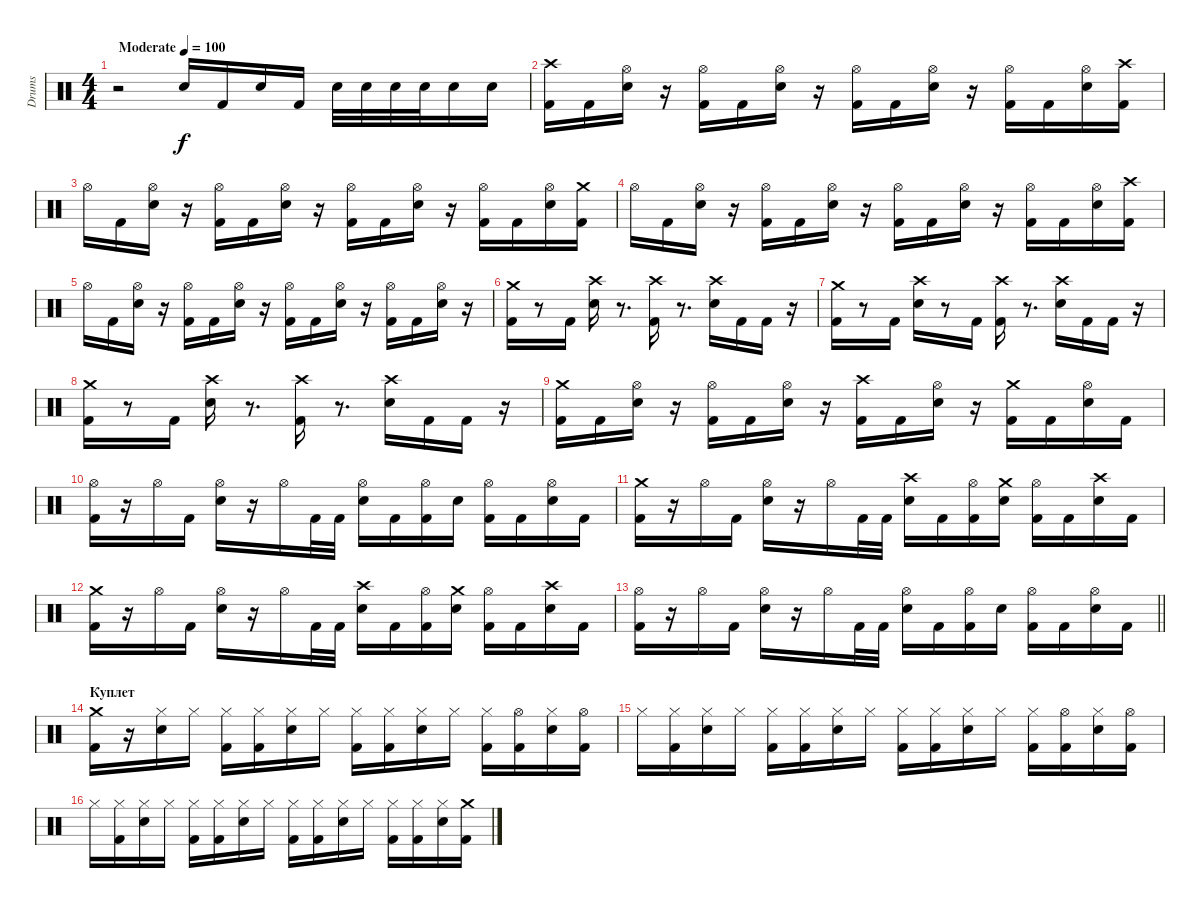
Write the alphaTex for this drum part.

\track ("Drums" "Drums") {instrument percussion}
\staff {score}
\articulation defaults
\ts (4 4)
\tempo (100 "Moderate")
\clef neutral
\ks c
r.2{dy f} "Electric Snare (hit)".16 "Kick (hit) 2".16 "Electric Snare (hit)".16 "Kick (hit) 2".16 "Electric Snare (hit)".32 "Electric Snare (hit)".32 "Electric Snare (hit)".32 "Electric Snare (hit)".32 "Electric Snare (hit)".16 "Electric Snare (hit)".16 |
("Crash high (hit)" "Kick (hit) 2").16 "Kick (hit) 2".16 ("Hi-Hat (open)" "Electric Snare (hit)").16 r.16 ("Hi-Hat (open)" "Kick (hit) 2").16 "Kick (hit) 2".16 ("Hi-Hat (open)" "Electric Snare (hit)").16 r.16 ("Hi-Hat (open)" "Kick (hit) 2").16 "Kick (hit) 2".16 ("Hi-Hat (open)" "Electric Snare (hit)").16 r.16 ("Hi-Hat (open)" "Kick (hit) 2").16 "Kick (hit) 2".16 ("Hi-Hat (open)" "Electric Snare (hit)").16 ("Crash high (hit)" "Kick (hit) 2").16 |
"Hi-Hat (open)".16 "Kick (hit) 2".16 ("Hi-Hat (open)" "Electric Snare (hit)").16 r.16 ("Hi-Hat (open)" "Kick (hit) 2").16 "Kick (hit) 2".16 ("Hi-Hat (open)" "Electric Snare (hit)").16 r.16 ("Hi-Hat (open)" "Kick (hit) 2").16 "Kick (hit) 2".16 ("Hi-Hat (open)" "Electric Snare (hit)").16 r.16 ("Hi-Hat (open)" "Kick (hit) 2").16 "Kick (hit) 2".16 ("Hi-Hat (open)" "Electric Snare (hit)").16 ("Crash medium (hit)" "Kick (hit) 2").16 |
"Hi-Hat (open)".16 "Kick (hit) 2".16 ("Hi-Hat (open)" "Electric Snare (hit)").16 r.16 ("Hi-Hat (open)" "Kick (hit) 2").16 "Kick (hit) 2".16 ("Hi-Hat (open)" "Electric Snare (hit)").16 r.16 ("Hi-Hat (open)" "Kick (hit) 2").16 "Kick (hit) 2".16 ("Hi-Hat (open)" "Electric Snare (hit)").16 r.16 ("Hi-Hat (open)" "Kick (hit) 2").16 "Kick (hit) 2".16 ("Hi-Hat (open)" "Electric Snare (hit)").16 ("Crash high (hit)" "Kick (hit) 2").16 |
"Hi-Hat (open)".16 "Kick (hit) 2".16 ("Hi-Hat (open)" "Electric Snare (hit)").16 r.16 ("Hi-Hat (open)" "Kick (hit) 2").16 "Kick (hit) 2".16 ("Hi-Hat (open)" "Electric Snare (hit)").16 r.16 ("Hi-Hat (open)" "Kick (hit) 2").16 "Kick (hit) 2".16 ("Hi-Hat (open)" "Electric Snare (hit)").16 r.16 ("Hi-Hat (open)" "Kick (hit) 2").16 "Kick (hit) 2".16 ("Hi-Hat (open)" "Electric Snare (hit)").16 r.16 |
("Crash medium (hit)" "Kick (hit) 2").16 r.8 "Kick (hit) 2".16 ("Crash high (hit)" "Electric Snare (hit)").16 r.8{d} ("Crash high (hit)" "Kick (hit) 2").16 r.8{d} ("Crash high (hit)" "Electric Snare (hit)").16 "Kick (hit) 2".16 "Kick (hit) 2".16 r.16 |
("Crash medium (hit)" "Kick (hit) 2").16 r.8 "Kick (hit) 2".16 ("Crash high (hit)" "Electric Snare (hit)").16 r.8 "Kick (hit) 2".16 ("Crash high (hit)" "Kick (hit) 2").16 r.8{d} ("Crash high (hit)" "Electric Snare (hit)").16 "Kick (hit) 2".16 "Kick (hit) 2".16 r.16 |
("Crash medium (hit)" "Kick (hit) 2").16 r.8 "Kick (hit) 2".16 ("Crash high (hit)" "Electric Snare (hit)").16 r.8{d} ("Crash high (hit)" "Kick (hit) 2").16 r.8{d} ("Crash high (hit)" "Electric Snare (hit)").16 "Kick (hit) 2".16 "Kick (hit) 2".16 r.16 |
("Crash medium (hit)" "Kick (hit) 2").16 "Kick (hit) 2".16 ("Hi-Hat (open)" "Electric Snare (hit)").16 r.16 ("Hi-Hat (open)" "Kick (hit) 2").16 "Kick (hit) 2".16 ("Hi-Hat (open)" "Electric Snare (hit)").16 r.16 ("Crash high (hit)" "Kick (hit) 2").16 "Kick (hit) 2".16 ("Hi-Hat (open)" "Electric Snare (hit)").16 r.16 ("Crash medium (hit)" "Kick (hit) 2").16 "Kick (hit) 2".16 ("Hi-Hat (open)" "Electric Snare (hit)").16 "Kick (hit) 2".16 |
("Hi-Hat (open)" "Kick (hit) 2").16 r.16 "Hi-Hat (open)".16 "Kick (hit) 2".16 ("Hi-Hat (open)" "Electric Snare (hit)").16 r.16 "Hi-Hat (open)".16 "Kick (hit) 2".32 "Kick (hit) 2".32 ("Hi-Hat (open)" "Electric Snare (hit)").16 "Kick (hit) 2".16 ("Hi-Hat (open)" "Kick (hit) 2").16 "Electric Snare (hit)".16 ("Hi-Hat (open)" "Kick (hit) 2").16 "Kick (hit) 2".16 ("Hi-Hat (open)" "Electric Snare (hit)").16 "Kick (hit) 2".16 |
("Crash medium (hit)" "Kick (hit) 2").16 r.16 "Hi-Hat (open)".16 "Kick (hit) 2".16 ("Hi-Hat (open)" "Electric Snare (hit)").16 r.16 "Hi-Hat (open)".16 "Kick (hit) 2".32 "Kick (hit) 2".32 ("Crash high (hit)" "Electric Snare (hit)").16 "Kick (hit) 2".16 ("Hi-Hat (open)" "Kick (hit) 2").16 ("Crash medium (hit)" "Electric Snare (hit)").16 ("Hi-Hat (open)" "Kick (hit) 2").16 "Kick (hit) 2".16 ("Crash high (hit)" "Electric Snare (hit)").16 "Kick (hit) 2".16 |
("Crash medium (hit)" "Kick (hit) 2").16 r.16 "Hi-Hat (open)".16 "Kick (hit) 2".16 ("Hi-Hat (open)" "Electric Snare (hit)").16 r.16 "Hi-Hat (open)".16 "Kick (hit) 2".32 "Kick (hit) 2".32 ("Crash high (hit)" "Electric Snare (hit)").16 "Kick (hit) 2".16 ("Hi-Hat (open)" "Kick (hit) 2").16 ("Crash medium (hit)" "Electric Snare (hit)").16 ("Hi-Hat (open)" "Kick (hit) 2").16 "Kick (hit) 2".16 ("Crash high (hit)" "Electric Snare (hit)").16 "Kick (hit) 2".16 |
\barLineRight lightlight
("Hi-Hat (open)" "Kick (hit) 2").16 r.16 "Hi-Hat (open)".16 "Kick (hit) 2".16 ("Hi-Hat (open)" "Electric Snare (hit)").16 r.16 "Hi-Hat (open)".16 "Kick (hit) 2".32 "Kick (hit) 2".32 ("Hi-Hat (open)" "Electric Snare (hit)").16 "Kick (hit) 2".16 ("Hi-Hat (open)" "Kick (hit) 2").16 "Electric Snare (hit)".16 ("Hi-Hat (open)" "Kick (hit) 2").16 "Kick (hit) 2".16 ("Hi-Hat (open)" "Electric Snare (hit)").16 "Kick (hit) 2".16 |
\section ("" "Куплет")
("Crash medium (hit)" "Kick (hit) 2").16 r.16 ("Hi-Hat (closed)" "Electric Snare (hit)").16 "Hi-Hat (closed)".16 ("Hi-Hat (closed)" "Kick (hit) 2").16 ("Hi-Hat (closed)" "Kick (hit) 2").16 ("Hi-Hat (closed)" "Electric Snare (hit)").16 "Hi-Hat (closed)".16 ("Hi-Hat (closed)" "Kick (hit) 2").16 ("Hi-Hat (closed)" "Kick (hit) 2").16 ("Hi-Hat (closed)" "Electric Snare (hit)").16 "Hi-Hat (closed)".16 ("Hi-Hat (closed)" "Kick (hit) 2").16 ("Hi-Hat (open)" "Kick (hit) 2").16 ("Hi-Hat (closed)" "Electric Snare (hit)").16 ("Hi-Hat (open)" "Kick (hit) 2").16 |
"Hi-Hat (closed)".16 ("Hi-Hat (closed)" "Kick (hit) 2").16 ("Hi-Hat (closed)" "Electric Snare (hit)").16 "Hi-Hat (closed)".16 ("Hi-Hat (closed)" "Kick (hit) 2").16 ("Hi-Hat (closed)" "Kick (hit) 2").16 ("Hi-Hat (closed)" "Electric Snare (hit)").16 "Hi-Hat (closed)".16 ("Hi-Hat (closed)" "Kick (hit) 2").16 ("Hi-Hat (closed)" "Kick (hit) 2").16 ("Hi-Hat (closed)" "Electric Snare (hit)").16 "Hi-Hat (closed)".16 ("Hi-Hat (closed)" "Kick (hit) 2").16 ("Hi-Hat (open)" "Kick (hit) 2").16 ("Hi-Hat (closed)" "Electric Snare (hit)").16 ("Hi-Hat (open)" "Kick (hit) 2").16 |
"Hi-Hat (closed)".16 ("Hi-Hat (closed)" "Kick (hit) 2").16 ("Hi-Hat (closed)" "Electric Snare (hit)").16 "Hi-Hat (closed)".16 ("Hi-Hat (closed)" "Kick (hit) 2").16 ("Hi-Hat (closed)" "Kick (hit) 2").16 ("Hi-Hat (closed)" "Electric Snare (hit)").16 "Hi-Hat (closed)".16 ("Hi-Hat (closed)" "Kick (hit) 2").16 ("Hi-Hat (closed)" "Kick (hit) 2").16 ("Hi-Hat (closed)" "Electric Snare (hit)").16 "Hi-Hat (closed)".16 ("Hi-Hat (closed)" "Kick (hit) 2").16 ("Hi-Hat (closed)" "Kick (hit) 2").16 ("Hi-Hat (closed)" "Electric Snare (hit)").16 ("Crash medium (hit)" "Kick (hit) 2").16
